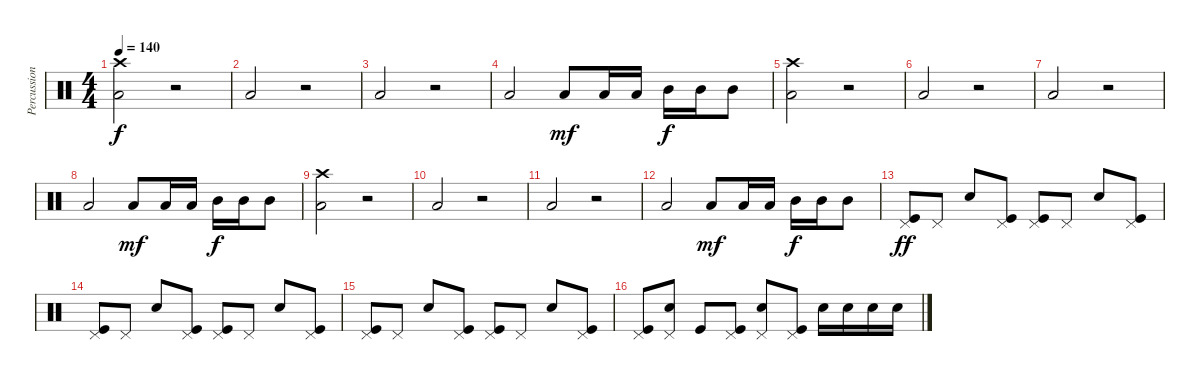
\track ("Percussion" "Percussion") {instrument percussion}
\staff {score}
\articulation defaults
\ts (4 4)
\tempo 140
\clef neutral
\ks c
("Crash high (hit)" "Low Tom (hit)").2{dy f} r.2 |
"Low Tom (hit)".2 r.2 |
"Low Tom (hit)".2 r.2 |
"Low Tom (hit)".2 "Low Tom (hit)".8{dy mf} "Low Tom (hit)".16 "Low Tom (hit)".16 "Mid Tom (hit)".16{dy f} "Mid Tom (hit)".16 "Mid Tom (hit)".8 |
("Crash high (hit)" "Low Tom (hit)").2 r.2 |
"Low Tom (hit)".2 r.2 |
"Low Tom (hit)".2 r.2 |
"Low Tom (hit)".2 "Low Tom (hit)".8{dy mf} "Low Tom (hit)".16 "Low Tom (hit)".16 "Mid Tom (hit)".16{dy f} "Mid Tom (hit)".16 "Mid Tom (hit)".8 |
("Crash high (hit)" "Low Tom (hit)").2 r.2 |
"Low Tom (hit)".2 r.2 |
"Low Tom (hit)".2 r.2 |
"Low Tom (hit)".2 "Low Tom (hit)".8{dy mf} "Low Tom (hit)".16 "Low Tom (hit)".16 "Mid Tom (hit)".16{dy f} "Mid Tom (hit)".16 "Mid Tom (hit)".8 |
("Pedal Hi-Hat (hit)" "Kick (hit)").8{dy ff} "Pedal Hi-Hat (hit)".8 "Snare (hit) 2".8 ("Pedal Hi-Hat (hit)" "Kick (hit)").8 ("Pedal Hi-Hat (hit)" "Kick (hit)").8 "Pedal Hi-Hat (hit)".8 "Snare (hit) 2".8 ("Pedal Hi-Hat (hit)" "Kick (hit)").8 |
("Pedal Hi-Hat (hit)" "Kick (hit)").8 "Pedal Hi-Hat (hit)".8 "Snare (hit) 2".8 ("Pedal Hi-Hat (hit)" "Kick (hit)").8 ("Pedal Hi-Hat (hit)" "Kick (hit)").8 "Pedal Hi-Hat (hit)".8 "Snare (hit) 2".8 ("Pedal Hi-Hat (hit)" "Kick (hit)").8 |
("Pedal Hi-Hat (hit)" "Kick (hit)").8 "Pedal Hi-Hat (hit)".8 "Snare (hit) 2".8 ("Pedal Hi-Hat (hit)" "Kick (hit)").8 ("Pedal Hi-Hat (hit)" "Kick (hit)").8 "Pedal Hi-Hat (hit)".8 "Snare (hit) 2".8 ("Pedal Hi-Hat (hit)" "Kick (hit)").8 |
("Pedal Hi-Hat (hit)" "Kick (hit)").8 ("Pedal Hi-Hat (hit)" "Snare (hit) 2").8 "Kick (hit)".8 ("Pedal Hi-Hat (hit)" "Kick (hit)").8 ("Pedal Hi-Hat (hit)" "Snare (hit) 2").8 ("Pedal Hi-Hat (hit)" "Kick (hit)").8 "Snare (hit) 2".16 "Snare (hit) 2".16 "Snare (hit) 2".16 "Snare (hit) 2".16
